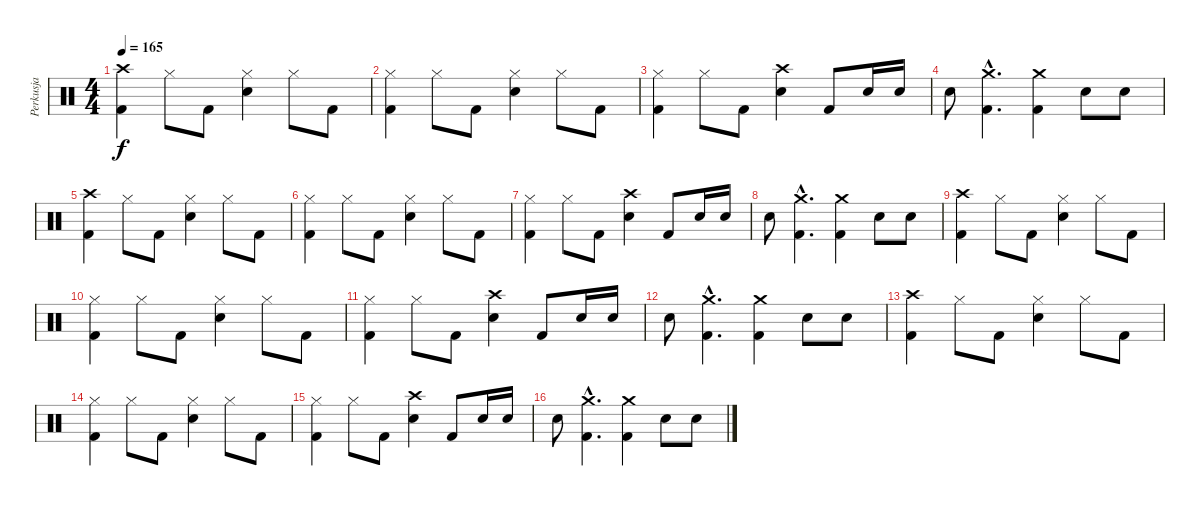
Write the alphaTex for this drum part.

\track ("Perkusja" "Perkusja") {instrument percussion}
\staff {score}
\articulation defaults
\ts (4 4)
\tempo 165
\clef neutral
\ks c
("Crash high (hit)" "Kick (hit) 2").4{dy f} "Hi-Hat (closed)".8 "Kick (hit) 2".8 ("Hi-Hat (closed)" "Snare (hit) 2").4 "Hi-Hat (closed)".8 "Kick (hit) 2".8 |
("Hi-Hat (closed)" "Kick (hit) 2").4 "Hi-Hat (closed)".8 "Kick (hit) 2".8 ("Hi-Hat (closed)" "Snare (hit) 2").4 "Hi-Hat (closed)".8 "Kick (hit) 2".8 |
("Hi-Hat (closed)" "Kick (hit) 2").4 "Hi-Hat (closed)".8 "Kick (hit) 2".8 ("Crash high (hit)" "Snare (hit) 2").4 "Kick (hit) 2".8 "Snare (hit) 2".16 "Snare (hit) 2".16 |
"Snare (hit) 2".8 ("Crash medium (hit)"{hac} "Kick (hit) 2"{hac}).4{d} ("Crash medium (hit)" "Kick (hit) 2").4 "Snare (hit) 2".8 "Snare (hit) 2".8 |
("Crash high (hit)" "Kick (hit) 2").4 "Hi-Hat (closed)".8 "Kick (hit) 2".8 ("Hi-Hat (closed)" "Snare (hit) 2").4 "Hi-Hat (closed)".8 "Kick (hit) 2".8 |
("Hi-Hat (closed)" "Kick (hit) 2").4 "Hi-Hat (closed)".8 "Kick (hit) 2".8 ("Hi-Hat (closed)" "Snare (hit) 2").4 "Hi-Hat (closed)".8 "Kick (hit) 2".8 |
("Hi-Hat (closed)" "Kick (hit) 2").4 "Hi-Hat (closed)".8 "Kick (hit) 2".8 ("Crash high (hit)" "Snare (hit) 2").4 "Kick (hit) 2".8 "Snare (hit) 2".16 "Snare (hit) 2".16 |
"Snare (hit) 2".8 ("Crash medium (hit)"{hac} "Kick (hit) 2"{hac}).4{d} ("Crash medium (hit)" "Kick (hit) 2").4 "Snare (hit) 2".8 "Snare (hit) 2".8 |
("Crash high (hit)" "Kick (hit) 2").4 "Hi-Hat (closed)".8 "Kick (hit) 2".8 ("Hi-Hat (closed)" "Snare (hit) 2").4 "Hi-Hat (closed)".8 "Kick (hit) 2".8 |
("Hi-Hat (closed)" "Kick (hit) 2").4 "Hi-Hat (closed)".8 "Kick (hit) 2".8 ("Hi-Hat (closed)" "Snare (hit) 2").4 "Hi-Hat (closed)".8 "Kick (hit) 2".8 |
("Hi-Hat (closed)" "Kick (hit) 2").4 "Hi-Hat (closed)".8 "Kick (hit) 2".8 ("Crash high (hit)" "Snare (hit) 2").4 "Kick (hit) 2".8 "Snare (hit) 2".16 "Snare (hit) 2".16 |
"Snare (hit) 2".8 ("Crash medium (hit)"{hac} "Kick (hit) 2"{hac}).4{d} ("Crash medium (hit)" "Kick (hit) 2").4 "Snare (hit) 2".8 "Snare (hit) 2".8 |
("Crash high (hit)" "Kick (hit) 2").4 "Hi-Hat (closed)".8 "Kick (hit) 2".8 ("Hi-Hat (closed)" "Snare (hit) 2").4 "Hi-Hat (closed)".8 "Kick (hit) 2".8 |
("Hi-Hat (closed)" "Kick (hit) 2").4 "Hi-Hat (closed)".8 "Kick (hit) 2".8 ("Hi-Hat (closed)" "Snare (hit) 2").4 "Hi-Hat (closed)".8 "Kick (hit) 2".8 |
("Hi-Hat (closed)" "Kick (hit) 2").4 "Hi-Hat (closed)".8 "Kick (hit) 2".8 ("Crash high (hit)" "Snare (hit) 2").4 "Kick (hit) 2".8 "Snare (hit) 2".16 "Snare (hit) 2".16 |
"Snare (hit) 2".8 ("Crash medium (hit)"{hac} "Kick (hit) 2"{hac}).4{d} ("Crash medium (hit)" "Kick (hit) 2").4 "Snare (hit) 2".8 "Snare (hit) 2".8
